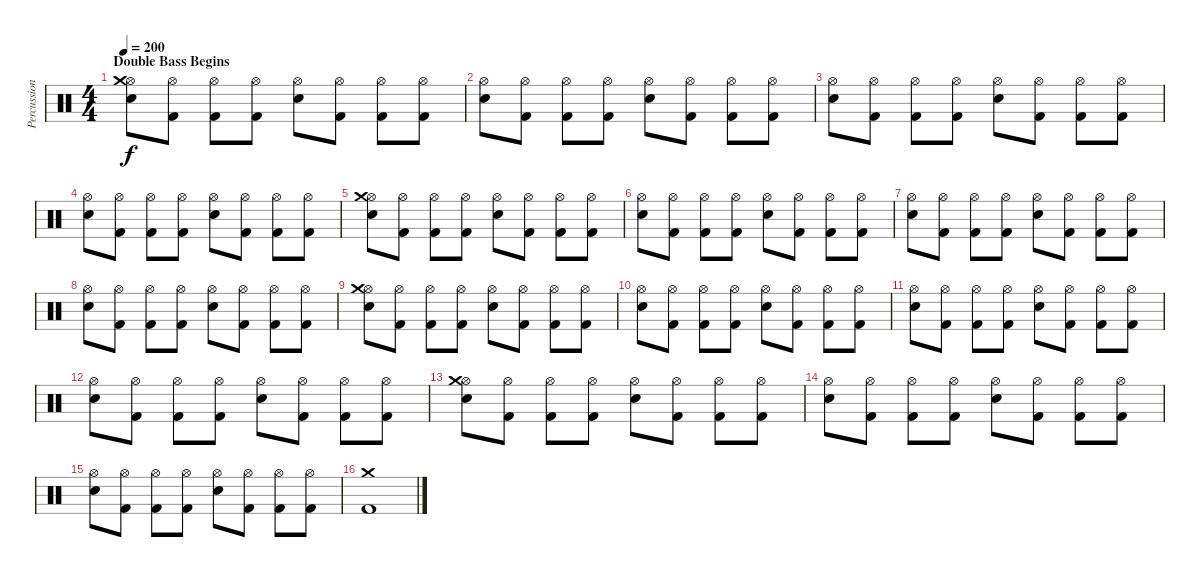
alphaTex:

\track ("Percussion" "Percussion") {instrument percussion}
\staff {score}
\articulation defaults
\ts (4 4)
\section ("" "Double Bass Begins")
\tempo 200
\clef neutral
\ks c
("Electric Snare (hit)" "Hi-Hat (open)" "Crash medium (hit)").8{dy f} ("Kick (hit) 2" "Hi-Hat (open)").8 ("Kick (hit) 2" "Hi-Hat (open)").8 ("Kick (hit) 2" "Hi-Hat (open)").8 ("Electric Snare (hit)" "Hi-Hat (open)").8 ("Kick (hit) 2" "Hi-Hat (open)").8 ("Kick (hit) 2" "Hi-Hat (open)").8 ("Kick (hit) 2" "Hi-Hat (open)").8 |
("Electric Snare (hit)" "Hi-Hat (open)").8 ("Kick (hit) 2" "Hi-Hat (open)").8 ("Kick (hit) 2" "Hi-Hat (open)").8 ("Kick (hit) 2" "Hi-Hat (open)").8 ("Electric Snare (hit)" "Hi-Hat (open)").8 ("Kick (hit) 2" "Hi-Hat (open)").8 ("Kick (hit) 2" "Hi-Hat (open)").8 ("Kick (hit) 2" "Hi-Hat (open)").8 |
("Electric Snare (hit)" "Hi-Hat (open)").8 ("Kick (hit) 2" "Hi-Hat (open)").8 ("Kick (hit) 2" "Hi-Hat (open)").8 ("Kick (hit) 2" "Hi-Hat (open)").8 ("Electric Snare (hit)" "Hi-Hat (open)").8 ("Kick (hit) 2" "Hi-Hat (open)").8 ("Kick (hit) 2" "Hi-Hat (open)").8 ("Kick (hit) 2" "Hi-Hat (open)").8 |
("Electric Snare (hit)" "Hi-Hat (open)").8 ("Kick (hit) 2" "Hi-Hat (open)").8 ("Kick (hit) 2" "Hi-Hat (open)").8 ("Kick (hit) 2" "Hi-Hat (open)").8 ("Electric Snare (hit)" "Hi-Hat (open)").8 ("Kick (hit) 2" "Hi-Hat (open)").8 ("Kick (hit) 2" "Hi-Hat (open)").8 ("Kick (hit) 2" "Hi-Hat (open)").8 |
("Electric Snare (hit)" "Hi-Hat (open)" "Crash medium (hit)").8 ("Kick (hit) 2" "Hi-Hat (open)").8 ("Kick (hit) 2" "Hi-Hat (open)").8 ("Kick (hit) 2" "Hi-Hat (open)").8 ("Electric Snare (hit)" "Hi-Hat (open)").8 ("Kick (hit) 2" "Hi-Hat (open)").8 ("Kick (hit) 2" "Hi-Hat (open)").8 ("Kick (hit) 2" "Hi-Hat (open)").8 |
("Electric Snare (hit)" "Hi-Hat (open)").8 ("Kick (hit) 2" "Hi-Hat (open)").8 ("Kick (hit) 2" "Hi-Hat (open)").8 ("Kick (hit) 2" "Hi-Hat (open)").8 ("Electric Snare (hit)" "Hi-Hat (open)").8 ("Kick (hit) 2" "Hi-Hat (open)").8 ("Kick (hit) 2" "Hi-Hat (open)").8 ("Kick (hit) 2" "Hi-Hat (open)").8 |
("Electric Snare (hit)" "Hi-Hat (open)").8 ("Kick (hit) 2" "Hi-Hat (open)").8 ("Kick (hit) 2" "Hi-Hat (open)").8 ("Kick (hit) 2" "Hi-Hat (open)").8 ("Electric Snare (hit)" "Hi-Hat (open)").8 ("Kick (hit) 2" "Hi-Hat (open)").8 ("Kick (hit) 2" "Hi-Hat (open)").8 ("Kick (hit) 2" "Hi-Hat (open)").8 |
("Electric Snare (hit)" "Hi-Hat (open)").8 ("Kick (hit) 2" "Hi-Hat (open)").8 ("Kick (hit) 2" "Hi-Hat (open)").8 ("Kick (hit) 2" "Hi-Hat (open)").8 ("Electric Snare (hit)" "Hi-Hat (open)").8 ("Kick (hit) 2" "Hi-Hat (open)").8 ("Kick (hit) 2" "Hi-Hat (open)").8 ("Kick (hit) 2" "Hi-Hat (open)").8 |
("Electric Snare (hit)" "Hi-Hat (open)" "Crash medium (hit)").8 ("Kick (hit) 2" "Hi-Hat (open)").8 ("Kick (hit) 2" "Hi-Hat (open)").8 ("Kick (hit) 2" "Hi-Hat (open)").8 ("Electric Snare (hit)" "Hi-Hat (open)").8 ("Kick (hit) 2" "Hi-Hat (open)").8 ("Kick (hit) 2" "Hi-Hat (open)").8 ("Kick (hit) 2" "Hi-Hat (open)").8 |
("Electric Snare (hit)" "Hi-Hat (open)").8 ("Kick (hit) 2" "Hi-Hat (open)").8 ("Kick (hit) 2" "Hi-Hat (open)").8 ("Kick (hit) 2" "Hi-Hat (open)").8 ("Electric Snare (hit)" "Hi-Hat (open)").8 ("Kick (hit) 2" "Hi-Hat (open)").8 ("Kick (hit) 2" "Hi-Hat (open)").8 ("Kick (hit) 2" "Hi-Hat (open)").8 |
("Electric Snare (hit)" "Hi-Hat (open)").8 ("Kick (hit) 2" "Hi-Hat (open)").8 ("Kick (hit) 2" "Hi-Hat (open)").8 ("Kick (hit) 2" "Hi-Hat (open)").8 ("Electric Snare (hit)" "Hi-Hat (open)").8 ("Kick (hit) 2" "Hi-Hat (open)").8 ("Kick (hit) 2" "Hi-Hat (open)").8 ("Kick (hit) 2" "Hi-Hat (open)").8 |
("Electric Snare (hit)" "Hi-Hat (open)").8 ("Kick (hit) 2" "Hi-Hat (open)").8 ("Kick (hit) 2" "Hi-Hat (open)").8 ("Kick (hit) 2" "Hi-Hat (open)").8 ("Electric Snare (hit)" "Hi-Hat (open)").8 ("Kick (hit) 2" "Hi-Hat (open)").8 ("Kick (hit) 2" "Hi-Hat (open)").8 ("Kick (hit) 2" "Hi-Hat (open)").8 |
("Electric Snare (hit)" "Hi-Hat (open)" "Crash medium (hit)").8 ("Kick (hit) 2" "Hi-Hat (open)").8 ("Kick (hit) 2" "Hi-Hat (open)").8 ("Kick (hit) 2" "Hi-Hat (open)").8 ("Electric Snare (hit)" "Hi-Hat (open)").8 ("Kick (hit) 2" "Hi-Hat (open)").8 ("Kick (hit) 2" "Hi-Hat (open)").8 ("Kick (hit) 2" "Hi-Hat (open)").8 |
("Electric Snare (hit)" "Hi-Hat (open)").8 ("Kick (hit) 2" "Hi-Hat (open)").8 ("Kick (hit) 2" "Hi-Hat (open)").8 ("Kick (hit) 2" "Hi-Hat (open)").8 ("Electric Snare (hit)" "Hi-Hat (open)").8 ("Kick (hit) 2" "Hi-Hat (open)").8 ("Kick (hit) 2" "Hi-Hat (open)").8 ("Kick (hit) 2" "Hi-Hat (open)").8 |
("Electric Snare (hit)" "Hi-Hat (open)").8 ("Kick (hit) 2" "Hi-Hat (open)").8 ("Kick (hit) 2" "Hi-Hat (open)").8 ("Kick (hit) 2" "Hi-Hat (open)").8 ("Electric Snare (hit)" "Hi-Hat (open)").8 ("Kick (hit) 2" "Hi-Hat (open)").8 ("Kick (hit) 2" "Hi-Hat (open)").8 ("Kick (hit) 2" "Hi-Hat (open)").8 |
("Kick (hit) 2" "Crash medium (hit)").1
